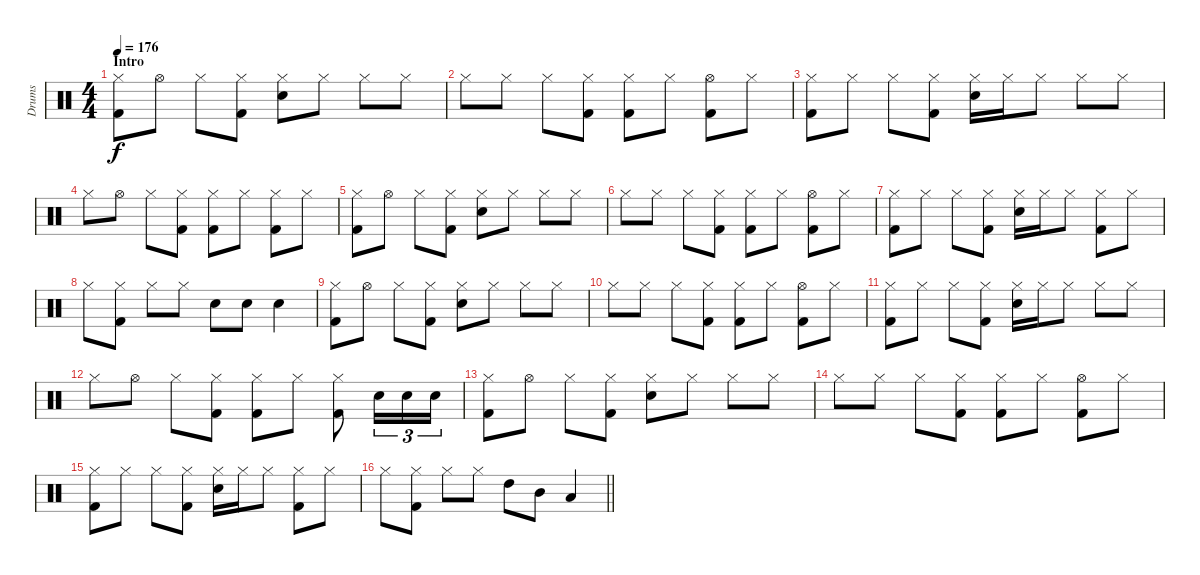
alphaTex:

\track ("Drums" "Drums") {instrument percussion}
\staff {score}
\articulation defaults
\ts (4 4)
\section ("" "Intro")
\tempo 176
\clef neutral
\ks c
("Hi-Hat (closed)" "Kick (hit) 2").8{dy f} "Hi-Hat (open)".8 "Hi-Hat (closed)".8 ("Hi-Hat (closed)" "Kick (hit) 2").8 ("Hi-Hat (closed)" "Snare (hit) 2").8 "Hi-Hat (closed)".8 "Hi-Hat (closed)".8 "Hi-Hat (closed)".8 |
"Hi-Hat (closed)".8 "Hi-Hat (closed)".8 "Hi-Hat (closed)".8 ("Hi-Hat (closed)" "Kick (hit) 2").8 ("Hi-Hat (closed)" "Kick (hit) 2").8 "Hi-Hat (closed)".8 ("Hi-Hat (open)" "Kick (hit) 2").8 "Hi-Hat (closed)".8 |
("Hi-Hat (closed)" "Kick (hit) 2").8 "Hi-Hat (closed)".8 "Hi-Hat (closed)".8 ("Hi-Hat (closed)" "Kick (hit) 2").8 ("Hi-Hat (closed)" "Snare (hit) 2").16 "Hi-Hat (closed)".16 "Hi-Hat (closed)".8 "Hi-Hat (closed)".8 "Hi-Hat (closed)".8 |
"Hi-Hat (closed)".8 "Hi-Hat (open)".8 "Hi-Hat (closed)".8 ("Hi-Hat (closed)" "Kick (hit) 2").8 ("Hi-Hat (closed)" "Kick (hit) 2").8 "Hi-Hat (closed)".8 ("Hi-Hat (closed)" "Kick (hit) 2").8 "Hi-Hat (closed)".8 |
("Hi-Hat (closed)" "Kick (hit) 2").8 "Hi-Hat (open)".8 "Hi-Hat (closed)".8 ("Hi-Hat (closed)" "Kick (hit) 2").8 ("Hi-Hat (closed)" "Snare (hit) 2").8 "Hi-Hat (closed)".8 "Hi-Hat (closed)".8 "Hi-Hat (closed)".8 |
"Hi-Hat (closed)".8 "Hi-Hat (closed)".8 "Hi-Hat (closed)".8 ("Hi-Hat (closed)" "Kick (hit) 2").8 ("Hi-Hat (closed)" "Kick (hit) 2").8 "Hi-Hat (closed)".8 ("Hi-Hat (open)" "Kick (hit) 2").8 "Hi-Hat (closed)".8 |
("Hi-Hat (closed)" "Kick (hit) 2").8 "Hi-Hat (closed)".8 "Hi-Hat (closed)".8 ("Hi-Hat (closed)" "Kick (hit) 2").8 ("Hi-Hat (closed)" "Snare (hit) 2").16 "Hi-Hat (closed)".16 "Hi-Hat (closed)".8 ("Hi-Hat (closed)" "Kick (hit) 2").8 "Hi-Hat (closed)".8 |
"Hi-Hat (closed)".8 ("Hi-Hat (closed)" "Kick (hit) 2").8 "Hi-Hat (closed)".8 "Hi-Hat (closed)".8 "Snare (hit) 2".8 "Snare (hit) 2".8 "Snare (hit) 2".4 |
("Hi-Hat (closed)" "Kick (hit) 2").8 "Hi-Hat (open)".8 "Hi-Hat (closed)".8 ("Hi-Hat (closed)" "Kick (hit) 2").8 ("Hi-Hat (closed)" "Snare (hit) 2").8 "Hi-Hat (closed)".8 "Hi-Hat (closed)".8 "Hi-Hat (closed)".8 |
"Hi-Hat (closed)".8 "Hi-Hat (closed)".8 "Hi-Hat (closed)".8 ("Hi-Hat (closed)" "Kick (hit) 2").8 ("Hi-Hat (closed)" "Kick (hit) 2").8 "Hi-Hat (closed)".8 ("Hi-Hat (open)" "Kick (hit) 2").8 "Hi-Hat (closed)".8 |
("Hi-Hat (closed)" "Kick (hit) 2").8 "Hi-Hat (closed)".8 "Hi-Hat (closed)".8 ("Hi-Hat (closed)" "Kick (hit) 2").8 ("Hi-Hat (closed)" "Snare (hit) 2").16 "Hi-Hat (closed)".16 "Hi-Hat (closed)".8 "Hi-Hat (closed)".8 "Hi-Hat (closed)".8 |
"Hi-Hat (closed)".8 "Hi-Hat (open)".8 "Hi-Hat (closed)".8 ("Hi-Hat (closed)" "Kick (hit) 2").8 ("Hi-Hat (closed)" "Kick (hit) 2").8 "Hi-Hat (closed)".8 ("Hi-Hat (closed)" "Kick (hit) 2").8 "Snare (hit) 2".16{tu (3 2)} "Snare (hit) 2".16{tu (3 2)} "Snare (hit) 2".16{tu (3 2)} |
("Hi-Hat (closed)" "Kick (hit) 2").8 "Hi-Hat (open)".8 "Hi-Hat (closed)".8 ("Hi-Hat (closed)" "Kick (hit) 2").8 ("Hi-Hat (closed)" "Snare (hit) 2").8 "Hi-Hat (closed)".8 "Hi-Hat (closed)".8 "Hi-Hat (closed)".8 |
"Hi-Hat (closed)".8 "Hi-Hat (closed)".8 "Hi-Hat (closed)".8 ("Hi-Hat (closed)" "Kick (hit) 2").8 ("Hi-Hat (closed)" "Kick (hit) 2").8 "Hi-Hat (closed)".8 ("Hi-Hat (open)" "Kick (hit) 2").8 "Hi-Hat (closed)".8 |
("Hi-Hat (closed)" "Kick (hit) 2").8 "Hi-Hat (closed)".8 "Hi-Hat (closed)".8 ("Hi-Hat (closed)" "Kick (hit) 2").8 ("Hi-Hat (closed)" "Snare (hit) 2").16 "Hi-Hat (closed)".16 "Hi-Hat (closed)".8 ("Hi-Hat (closed)" "Kick (hit) 2").8 "Hi-Hat (closed)".8 |
\barLineRight lightlight "Hi-Hat (closed)".8
("Hi-Hat (closed)" "Kick (hit) 2").8 "Hi-Hat (closed)".8 "Hi-Hat (closed)".8 "High Tom (hit)".8 "Mid Tom (hit)".8 "Low Tom (hit)".4
